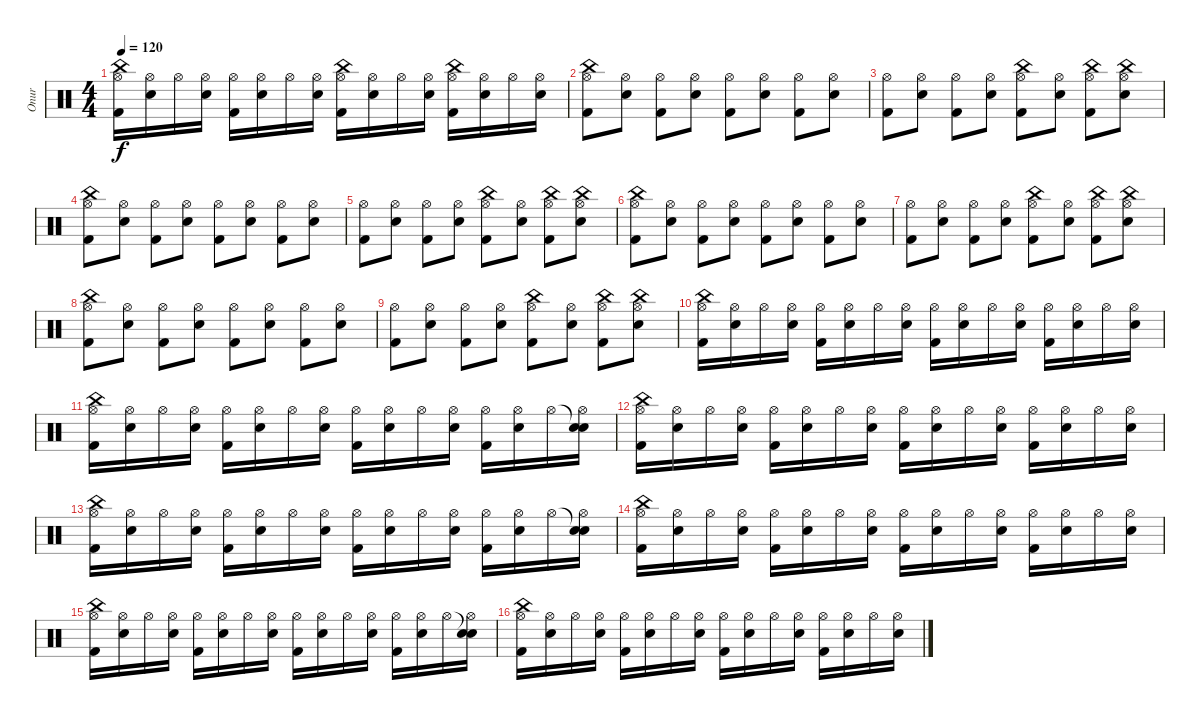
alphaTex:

\track ("Onur" "Onur") {instrument percussion}
\staff {score}
\articulation defaults
\ts (4 4)
\tempo 120
\clef neutral
\ks c
("China (hit)" "Hi-Hat (open)" "Kick (hit) 2").16{dy f} ("Hi-Hat (open)" "Snare (hit) 2").16 "Hi-Hat (open)".16 ("Hi-Hat (open)" "Snare (hit) 2").16 ("Hi-Hat (open)" "Kick (hit) 2").16 ("Hi-Hat (open)" "Snare (hit) 2").16 "Hi-Hat (open)".16 ("Hi-Hat (open)" "Snare (hit) 2").16 ("China (hit)" "Hi-Hat (open)" "Kick (hit) 2").16 ("Hi-Hat (open)" "Snare (hit) 2").16 "Hi-Hat (open)".16 ("Hi-Hat (open)" "Snare (hit) 2").16 ("China (hit)" "Hi-Hat (open)" "Kick (hit) 2").16 ("Hi-Hat (open)" "Snare (hit) 2").16 "Hi-Hat (open)".16 ("Hi-Hat (open)" "Snare (hit) 2").16 |
("China (hit)" "Hi-Hat (open)" "Kick (hit) 2").8 ("Hi-Hat (open)" "Snare (hit) 2").8 ("Hi-Hat (open)" "Kick (hit) 2").8 ("Hi-Hat (open)" "Snare (hit) 2").8 ("Hi-Hat (open)" "Kick (hit) 2").8 ("Hi-Hat (open)" "Snare (hit) 2").8 ("Hi-Hat (open)" "Kick (hit) 2").8 ("Hi-Hat (open)" "Snare (hit) 2").8 |
("Hi-Hat (open)" "Kick (hit) 2").8 ("Hi-Hat (open)" "Snare (hit) 2").8 ("Hi-Hat (open)" "Kick (hit) 2").8 ("Hi-Hat (open)" "Snare (hit) 2").8 ("China (hit)" "Hi-Hat (open)" "Kick (hit) 2").8 ("Hi-Hat (open)" "Snare (hit) 2").8 ("China (hit)" "Hi-Hat (open)" "Kick (hit) 2").8 ("China (hit)" "Hi-Hat (open)" "Snare (hit) 2").8 |
("China (hit)" "Hi-Hat (open)" "Kick (hit) 2").8 ("Hi-Hat (open)" "Snare (hit) 2").8 ("Hi-Hat (open)" "Kick (hit) 2").8 ("Hi-Hat (open)" "Snare (hit) 2").8 ("Hi-Hat (open)" "Kick (hit) 2").8 ("Hi-Hat (open)" "Snare (hit) 2").8 ("Hi-Hat (open)" "Kick (hit) 2").8 ("Hi-Hat (open)" "Snare (hit) 2").8 |
("Hi-Hat (open)" "Kick (hit) 2").8 ("Hi-Hat (open)" "Snare (hit) 2").8 ("Hi-Hat (open)" "Kick (hit) 2").8 ("Hi-Hat (open)" "Snare (hit) 2").8 ("China (hit)" "Hi-Hat (open)" "Kick (hit) 2").8 ("Hi-Hat (open)" "Snare (hit) 2").8 ("China (hit)" "Hi-Hat (open)" "Kick (hit) 2").8 ("China (hit)" "Hi-Hat (open)" "Snare (hit) 2").8 |
("China (hit)" "Hi-Hat (open)" "Kick (hit) 2").8 ("Hi-Hat (open)" "Snare (hit) 2").8 ("Hi-Hat (open)" "Kick (hit) 2").8 ("Hi-Hat (open)" "Snare (hit) 2").8 ("Hi-Hat (open)" "Kick (hit) 2").8 ("Hi-Hat (open)" "Snare (hit) 2").8 ("Hi-Hat (open)" "Kick (hit) 2").8 ("Hi-Hat (open)" "Snare (hit) 2").8 |
("Hi-Hat (open)" "Kick (hit) 2").8 ("Hi-Hat (open)" "Snare (hit) 2").8 ("Hi-Hat (open)" "Kick (hit) 2").8 ("Hi-Hat (open)" "Snare (hit) 2").8 ("China (hit)" "Hi-Hat (open)" "Kick (hit) 2").8 ("Hi-Hat (open)" "Snare (hit) 2").8 ("China (hit)" "Hi-Hat (open)" "Kick (hit) 2").8 ("China (hit)" "Hi-Hat (open)" "Snare (hit) 2").8 |
("China (hit)" "Hi-Hat (open)" "Kick (hit) 2").8 ("Hi-Hat (open)" "Snare (hit) 2").8 ("Hi-Hat (open)" "Kick (hit) 2").8 ("Hi-Hat (open)" "Snare (hit) 2").8 ("Hi-Hat (open)" "Kick (hit) 2").8 ("Hi-Hat (open)" "Snare (hit) 2").8 ("Hi-Hat (open)" "Kick (hit) 2").8 ("Hi-Hat (open)" "Snare (hit) 2").8 |
("Hi-Hat (open)" "Kick (hit) 2").8 ("Hi-Hat (open)" "Snare (hit) 2").8 ("Hi-Hat (open)" "Kick (hit) 2").8 ("Hi-Hat (open)" "Snare (hit) 2").8 ("China (hit)" "Hi-Hat (open)" "Kick (hit) 2").8 ("Hi-Hat (open)" "Snare (hit) 2").8 ("China (hit)" "Hi-Hat (open)" "Kick (hit) 2").8 ("China (hit)" "Hi-Hat (open)" "Snare (hit) 2").8 |
("China (hit)" "Hi-Hat (open)" "Kick (hit) 2").16 ("Hi-Hat (open)" "Snare (hit) 2").16 "Hi-Hat (open)".16 ("Hi-Hat (open)" "Snare (hit) 2").16 ("Hi-Hat (open)" "Kick (hit) 2").16 ("Hi-Hat (open)" "Snare (hit) 2").16 "Hi-Hat (open)".16 ("Hi-Hat (open)" "Snare (hit) 2").16 ("Hi-Hat (open)" "Kick (hit) 2").16 ("Hi-Hat (open)" "Snare (hit) 2").16 "Hi-Hat (open)".16 ("Hi-Hat (open)" "Snare (hit) 2").16 ("Hi-Hat (open)" "Kick (hit) 2").16 ("Hi-Hat (open)" "Snare (hit) 2").16 "Hi-Hat (open)".16 ("Hi-Hat (open)" "Snare (hit) 2").16 |
("China (hit)" "Hi-Hat (open)" "Kick (hit) 2").16 ("Hi-Hat (open)" "Snare (hit) 2").16 "Hi-Hat (open)".16 ("Hi-Hat (open)" "Snare (hit) 2").16 ("Hi-Hat (open)" "Kick (hit) 2").16 ("Hi-Hat (open)" "Snare (hit) 2").16 "Hi-Hat (open)".16 ("Hi-Hat (open)" "Snare (hit) 2").16 ("Hi-Hat (open)" "Kick (hit) 2").16 ("Hi-Hat (open)" "Snare (hit) 2").16 "Hi-Hat (open)".16 ("Hi-Hat (open)" "Snare (hit) 2").16 ("Hi-Hat (open)" "Kick (hit) 2").16 ("Hi-Hat (open)" "Snare (hit) 2").16 "Hi-Hat (open)".16 ("Snare (hit)"{t} "Hi-Hat (open)" "Snare (hit) 2").16 |
("China (hit)" "Hi-Hat (open)" "Kick (hit) 2").16 ("Hi-Hat (open)" "Snare (hit) 2").16 "Hi-Hat (open)".16 ("Hi-Hat (open)" "Snare (hit) 2").16 ("Hi-Hat (open)" "Kick (hit) 2").16 ("Hi-Hat (open)" "Snare (hit) 2").16 "Hi-Hat (open)".16 ("Hi-Hat (open)" "Snare (hit) 2").16 ("Hi-Hat (open)" "Kick (hit) 2").16 ("Hi-Hat (open)" "Snare (hit) 2").16 "Hi-Hat (open)".16 ("Hi-Hat (open)" "Snare (hit) 2").16 ("Hi-Hat (open)" "Kick (hit) 2").16 ("Hi-Hat (open)" "Snare (hit) 2").16 "Hi-Hat (open)".16 ("Hi-Hat (open)" "Snare (hit) 2").16 |
("China (hit)" "Hi-Hat (open)" "Kick (hit) 2").16 ("Hi-Hat (open)" "Snare (hit) 2").16 "Hi-Hat (open)".16 ("Hi-Hat (open)" "Snare (hit) 2").16 ("Hi-Hat (open)" "Kick (hit) 2").16 ("Hi-Hat (open)" "Snare (hit) 2").16 "Hi-Hat (open)".16 ("Hi-Hat (open)" "Snare (hit) 2").16 ("Hi-Hat (open)" "Kick (hit) 2").16 ("Hi-Hat (open)" "Snare (hit) 2").16 "Hi-Hat (open)".16 ("Hi-Hat (open)" "Snare (hit) 2").16 ("Hi-Hat (open)" "Kick (hit) 2").16 ("Hi-Hat (open)" "Snare (hit) 2").16 "Hi-Hat (open)".16 ("Snare (hit)"{t} "Hi-Hat (open)" "Snare (hit) 2").16 |
("China (hit)" "Hi-Hat (open)" "Kick (hit) 2").16 ("Hi-Hat (open)" "Snare (hit) 2").16 "Hi-Hat (open)".16 ("Hi-Hat (open)" "Snare (hit) 2").16 ("Hi-Hat (open)" "Kick (hit) 2").16 ("Hi-Hat (open)" "Snare (hit) 2").16 "Hi-Hat (open)".16 ("Hi-Hat (open)" "Snare (hit) 2").16 ("Hi-Hat (open)" "Kick (hit) 2").16 ("Hi-Hat (open)" "Snare (hit) 2").16 "Hi-Hat (open)".16 ("Hi-Hat (open)" "Snare (hit) 2").16 ("Hi-Hat (open)" "Kick (hit) 2").16 ("Hi-Hat (open)" "Snare (hit) 2").16 "Hi-Hat (open)".16 ("Hi-Hat (open)" "Snare (hit) 2").16 |
("China (hit)" "Hi-Hat (open)" "Kick (hit) 2").16 ("Hi-Hat (open)" "Snare (hit) 2").16 "Hi-Hat (open)".16 ("Hi-Hat (open)" "Snare (hit) 2").16 ("Hi-Hat (open)" "Kick (hit) 2").16 ("Hi-Hat (open)" "Snare (hit) 2").16 "Hi-Hat (open)".16 ("Hi-Hat (open)" "Snare (hit) 2").16 ("Hi-Hat (open)" "Kick (hit) 2").16 ("Hi-Hat (open)" "Snare (hit) 2").16 "Hi-Hat (open)".16 ("Hi-Hat (open)" "Snare (hit) 2").16 ("Hi-Hat (open)" "Kick (hit) 2").16 ("Hi-Hat (open)" "Snare (hit) 2").16 "Hi-Hat (open)".16 ("Snare (hit)"{t} "Hi-Hat (open)" "Snare (hit) 2").16 |
("China (hit)" "Hi-Hat (open)" "Kick (hit) 2").16 ("Hi-Hat (open)" "Snare (hit) 2").16 "Hi-Hat (open)".16 ("Hi-Hat (open)" "Snare (hit) 2").16 ("Hi-Hat (open)" "Kick (hit) 2").16 ("Hi-Hat (open)" "Snare (hit) 2").16 "Hi-Hat (open)".16 ("Hi-Hat (open)" "Snare (hit) 2").16 ("Hi-Hat (open)" "Kick (hit) 2").16 ("Hi-Hat (open)" "Snare (hit) 2").16 "Hi-Hat (open)".16 ("Hi-Hat (open)" "Snare (hit) 2").16 ("Hi-Hat (open)" "Kick (hit) 2").16 ("Hi-Hat (open)" "Snare (hit) 2").16 "Hi-Hat (open)".16 ("Hi-Hat (open)" "Snare (hit) 2").16
